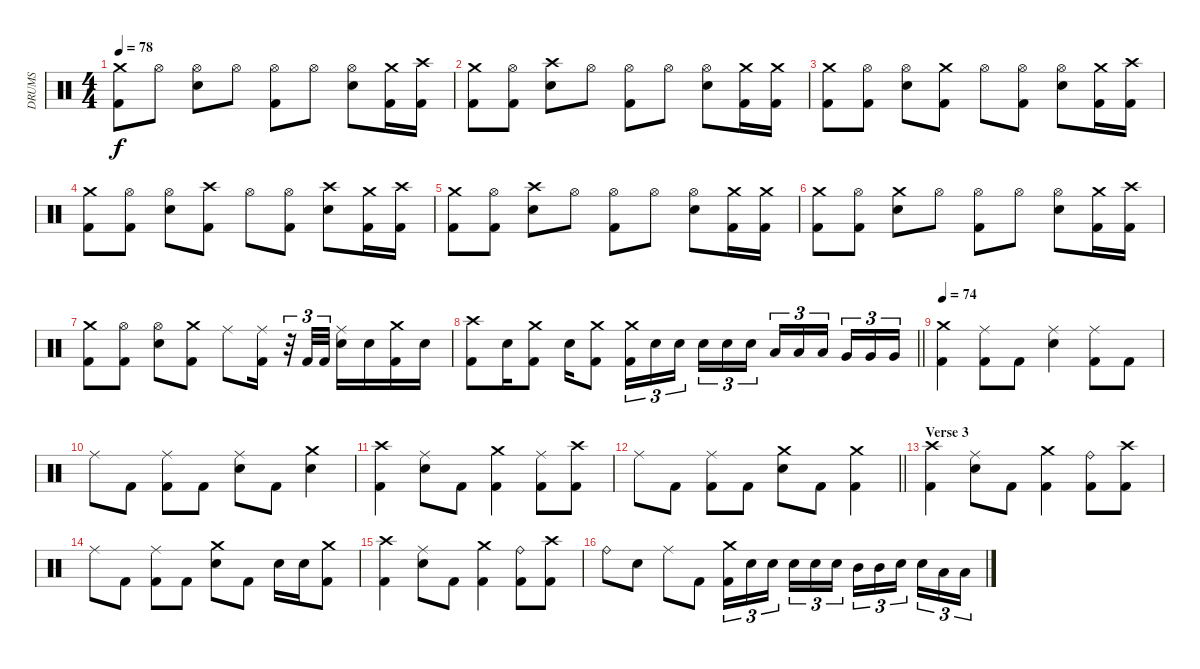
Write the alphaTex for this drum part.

\track ("DRUMS" "DRUMS") {instrument percussion}
\staff {score}
\articulation defaults
\ts (4 4)
\tempo 78
\clef neutral
\ks c
("Crash medium (hit)" "Kick (hit) 2").8{dy f} "Hi-Hat (open)".8 ("Hi-Hat (open)" "Snare (hit) 2").8 "Hi-Hat (open)".8 ("Hi-Hat (open)" "Kick (hit) 2").8 "Hi-Hat (open)".8 ("Hi-Hat (open)" "Snare (hit) 2").8 ("Crash medium (hit)" "Kick (hit) 2").16 ("Crash high (hit)" "Kick (hit) 2").16 |
("Crash medium (hit)" "Kick (hit) 2").8 ("Hi-Hat (open)" "Kick (hit) 2").8 ("Crash high (hit)" "Snare (hit) 2").8 "Hi-Hat (open)".8 ("Hi-Hat (open)" "Kick (hit) 2").8 "Hi-Hat (open)".8 ("Hi-Hat (open)" "Snare (hit) 2").8 ("Crash medium (hit)" "Kick (hit) 2").16 ("Crash medium (hit)" "Kick (hit) 2").16 |
("Crash medium (hit)" "Kick (hit) 2").8 ("Hi-Hat (open)" "Kick (hit) 2").8 ("Hi-Hat (open)" "Snare (hit) 2").8 ("Crash medium (hit)" "Kick (hit) 2").8 "Hi-Hat (open)".8 ("Hi-Hat (open)" "Kick (hit) 2").8 ("Hi-Hat (open)" "Snare (hit) 2").8 ("Crash medium (hit)" "Kick (hit) 2").16 ("Crash high (hit)" "Kick (hit) 2").16 |
("Crash medium (hit)" "Kick (hit) 2").8 ("Hi-Hat (open)" "Kick (hit) 2").8 ("Hi-Hat (open)" "Snare (hit) 2").8 ("Crash high (hit)" "Kick (hit) 2").8 "Hi-Hat (open)".8 ("Hi-Hat (open)" "Kick (hit) 2").8 ("Crash high (hit)" "Snare (hit) 2").8 ("Crash medium (hit)" "Kick (hit) 2").16 ("Crash high (hit)" "Kick (hit) 2").16 |
("Crash medium (hit)" "Kick (hit) 2").8 ("Hi-Hat (open)" "Kick (hit) 2").8 ("Crash high (hit)" "Snare (hit) 2").8 "Hi-Hat (open)".8 ("Hi-Hat (open)" "Kick (hit) 2").8 "Hi-Hat (open)".8 ("Hi-Hat (open)" "Snare (hit) 2").8 ("Crash medium (hit)" "Kick (hit) 2").16 ("Crash medium (hit)" "Kick (hit) 2").16 |
("Crash medium (hit)" "Kick (hit) 2").8 ("Hi-Hat (open)" "Kick (hit) 2").8 ("Crash medium (hit)" "Snare (hit) 2").8 "Hi-Hat (open)".8 ("Hi-Hat (open)" "Kick (hit) 2").8 "Hi-Hat (open)".8 ("Hi-Hat (open)" "Snare (hit) 2").8 ("Crash medium (hit)" "Kick (hit) 2").16 ("Crash high (hit)" "Kick (hit) 2").16 |
("Crash medium (hit)" "Kick (hit) 2").8 ("Hi-Hat (open)" "Kick (hit) 2").8 ("Hi-Hat (open)" "Snare (hit) 2").8 ("Crash medium (hit)" "Kick (hit) 2").8 "Ride (middle)".8 ("Ride (middle)" "Kick (hit) 2").16 r.32{tu (3 2)} "Kick (hit) 2".32{tu (3 2)} "Kick (hit) 2".32{tu (3 2)} ("Ride (middle)" "Snare (hit) 2").16 "Snare (hit) 2".16 ("Crash medium (hit)" "Kick (hit) 2").16 "Snare (hit) 2".16 |
\barLineRight lightlight
("Crash high (hit)" "Kick (hit) 2").8 "Snare (hit) 2".16 ("Crash medium (hit)" "Kick (hit) 2").8 "Snare (hit) 2".16 ("Crash medium (hit)" "Kick (hit) 2").8 ("Crash medium (hit)" "Kick (hit) 2").16{tu (3 2)} "Snare (hit) 2".16{tu (3 2)} "Snare (hit) 2".16{tu (3 2) beam splitsecondary} "Snare (hit) 2".16{tu (3 2)} "Snare (hit) 2".16{tu (3 2)} "Snare (hit) 2".16{tu (3 2)} "Low Tom (hit)".16{tu (3 2)} "Low Tom (hit)".16{tu (3 2)} "Low Tom (hit)".16{tu (3 2) beam splitsecondary} "Very Low Tom (hit)".16{tu (3 2)} "Very Low Tom (hit)".16{tu (3 2)} "Very Low Tom (hit)".16{tu (3 2)} |
\tempo 74
("Crash medium (hit)" "Kick (hit) 2").4 ("Ride (middle)" "Kick (hit) 2").8 "Kick (hit) 2".8 ("Ride (middle)" "Snare (hit) 2").4 ("Ride (middle)" "Kick (hit) 2").8 "Kick (hit) 2".8 |
"Ride (middle)".8 "Kick (hit) 2".8 ("Ride (middle)" "Kick (hit) 2").8 "Kick (hit) 2".8 ("Ride (middle)" "Snare (hit) 2").8 "Kick (hit) 2".8 ("Crash medium (hit)" "Snare (hit) 2").4 |
("Crash high (hit)" "Kick (hit) 2").4 ("Ride (middle)" "Snare (hit) 2").8 "Kick (hit) 2".8 ("Crash medium (hit)" "Kick (hit) 2").4 ("Ride (middle)" "Kick (hit) 2").8 ("Crash high (hit)" "Kick (hit) 2").8 |
\barLineRight lightlight "Ride (middle)".8 "Kick (hit) 2".8
("Ride (middle)" "Kick (hit) 2").8 "Kick (hit) 2".8 ("Crash medium (hit)" "Snare (hit) 2").8 "Kick (hit) 2".8 ("Crash medium (hit)" "Kick (hit) 2").4 |
\section ("" "Verse 3")
("Crash high (hit)" "Kick (hit) 2").4 ("Ride (middle)" "Snare (hit) 2").8 "Kick (hit) 2".8 ("Crash medium (hit)" "Kick (hit) 2").4 ("Ride (bell)" "Kick (hit) 2").8 ("Crash high (hit)" "Kick (hit) 2").8 |
"Ride (middle)".8 "Kick (hit) 2".8 ("Ride (middle)" "Kick (hit) 2").8 "Kick (hit) 2".8 ("Crash medium (hit)" "Snare (hit) 2").8 "Kick (hit) 2".8 "Snare (hit) 2".16 "Snare (hit) 2".16 ("Crash medium (hit)" "Kick (hit) 2").8 |
("Crash high (hit)" "Kick (hit) 2").4 ("Ride (middle)" "Snare (hit) 2").8 "Kick (hit) 2".8 ("Crash medium (hit)" "Kick (hit) 2").4 ("Ride (bell)" "Kick (hit) 2").8 ("Crash high (hit)" "Kick (hit) 2").8 |
"Ride (bell)".8 "Snare (hit) 2".8 "Ride (middle)".8 "Kick (hit) 2".8 ("Crash medium (hit)" "Kick (hit) 2").16{tu (3 2)} "Snare (hit) 2".16{tu (3 2)} "Snare (hit) 2".16{tu (3 2) beam splitsecondary} "Snare (hit) 2".16{tu (3 2)} "Snare (hit) 2".16{tu (3 2)} "Snare (hit) 2".16{tu (3 2)} "Mid Tom (hit)".16{tu (3 2)} "Mid Tom (hit)".16{tu (3 2)} "Snare (hit) 2".16{tu (3 2) beam splitsecondary} "Snare (hit) 2".16{tu (3 2)} "Low Tom (hit)".16{tu (3 2)} "Low Tom (hit)".16{tu (3 2)}
